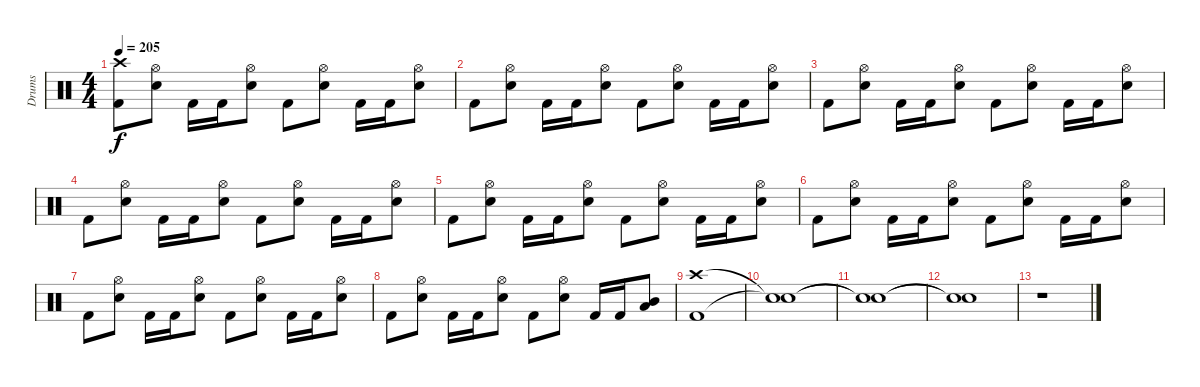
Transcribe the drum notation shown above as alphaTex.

\track ("Drums" "Drums") {instrument percussion}
\staff {score}
\articulation defaults
\ts (4 4)
\tempo 205
\clef neutral
\ks c
("Crash high (hit)" "Kick (hit) 2").8{dy f} ("Hi-Hat (open)" "Electric Snare (hit)").8 "Kick (hit) 2".16 "Kick (hit) 2".16 ("Hi-Hat (open)" "Electric Snare (hit)").8 "Kick (hit) 2".8 ("Hi-Hat (open)" "Electric Snare (hit)").8 "Kick (hit) 2".16 "Kick (hit) 2".16 ("Hi-Hat (open)" "Electric Snare (hit)").8 |
"Kick (hit) 2".8 ("Hi-Hat (open)" "Electric Snare (hit)").8 "Kick (hit) 2".16 "Kick (hit) 2".16 ("Hi-Hat (open)" "Electric Snare (hit)").8 "Kick (hit) 2".8 ("Hi-Hat (open)" "Electric Snare (hit)").8 "Kick (hit) 2".16 "Kick (hit) 2".16 ("Hi-Hat (open)" "Electric Snare (hit)").8 |
"Kick (hit) 2".8 ("Hi-Hat (open)" "Electric Snare (hit)").8 "Kick (hit) 2".16 "Kick (hit) 2".16 ("Hi-Hat (open)" "Electric Snare (hit)").8 "Kick (hit) 2".8 ("Hi-Hat (open)" "Electric Snare (hit)").8 "Kick (hit) 2".16 "Kick (hit) 2".16 ("Hi-Hat (open)" "Electric Snare (hit)").8 |
"Kick (hit) 2".8 ("Hi-Hat (open)" "Electric Snare (hit)").8 "Kick (hit) 2".16 "Kick (hit) 2".16 ("Hi-Hat (open)" "Electric Snare (hit)").8 "Kick (hit) 2".8 ("Hi-Hat (open)" "Electric Snare (hit)").8 "Kick (hit) 2".16 "Kick (hit) 2".16 ("Hi-Hat (open)" "Electric Snare (hit)").8 |
"Kick (hit) 2".8 ("Hi-Hat (open)" "Electric Snare (hit)").8 "Kick (hit) 2".16 "Kick (hit) 2".16 ("Hi-Hat (open)" "Electric Snare (hit)").8 "Kick (hit) 2".8 ("Hi-Hat (open)" "Electric Snare (hit)").8 "Kick (hit) 2".16 "Kick (hit) 2".16 ("Hi-Hat (open)" "Electric Snare (hit)").8 |
"Kick (hit) 2".8 ("Hi-Hat (open)" "Electric Snare (hit)").8 "Kick (hit) 2".16 "Kick (hit) 2".16 ("Hi-Hat (open)" "Electric Snare (hit)").8 "Kick (hit) 2".8 ("Hi-Hat (open)" "Electric Snare (hit)").8 "Kick (hit) 2".16 "Kick (hit) 2".16 ("Hi-Hat (open)" "Electric Snare (hit)").8 |
"Kick (hit) 2".8 ("Hi-Hat (open)" "Electric Snare (hit)").8 "Kick (hit) 2".16 "Kick (hit) 2".16 ("Hi-Hat (open)" "Electric Snare (hit)").8 "Kick (hit) 2".8 ("Hi-Hat (open)" "Electric Snare (hit)").8 "Kick (hit) 2".16 "Kick (hit) 2".16 ("Hi-Hat (open)" "Electric Snare (hit)").8 |
"Kick (hit) 2".8 ("Hi-Hat (open)" "Electric Snare (hit)").8 "Kick (hit) 2".16 "Kick (hit) 2".16 ("Hi-Hat (open)" "Electric Snare (hit)").8 "Kick (hit) 2".8 ("Hi-Hat (open)" "Electric Snare (hit)").8 "Kick (hit) 2".16 "Kick (hit) 2".16 ("Low Tom (hit)" "Mid Tom (hit)").8 |
("Crash high (hit)" "Kick (hit) 2").1 |
("Snare (hit)"{t} "Snare (hit)"{t}).1 |
("Snare (hit)"{t} "Snare (hit)"{t}).1 |
("Snare (hit)"{t} "Snare (hit)"{t}).1 |
r.1
